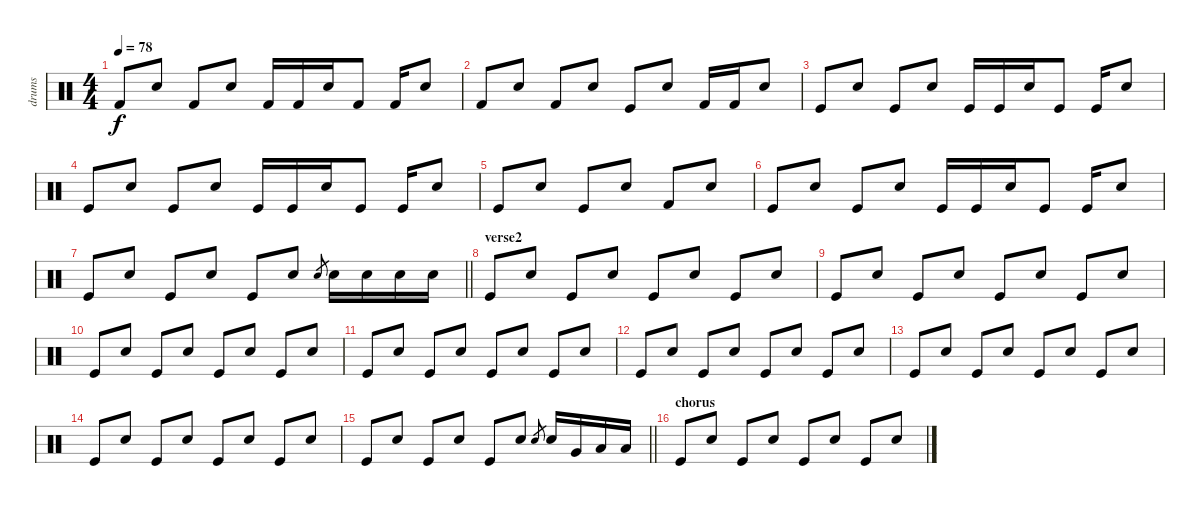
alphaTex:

\track ("drums" "drums") {instrument percussion}
\staff {score}
\articulation defaults
\ts (4 4)
\tempo 78
\clef neutral
\ks c "Kick (hit) 2".8{dy f} "Snare (hit) 2".8 "Kick (hit) 2".8 "Snare (hit) 2".8 "Kick (hit) 2".16 "Kick (hit) 2".16 "Snare (hit) 2".16 "Kick (hit) 2".8 "Kick (hit) 2".16 "Snare (hit) 2".8
|
"Kick (hit) 2".8 "Snare (hit) 2".8 "Kick (hit) 2".8 "Snare (hit) 2".8 "Kick (hit)".8 "Snare (hit) 2".8 "Kick (hit) 2".16 "Kick (hit) 2".16 "Snare (hit) 2".8 |
"Kick (hit)".8 "Snare (hit) 2".8 "Kick (hit)".8 "Snare (hit) 2".8 "Kick (hit)".16 "Kick (hit)".16 "Snare (hit) 2".16 "Kick (hit)".8 "Kick (hit)".16 "Snare (hit) 2".8 |
"Kick (hit)".8 "Snare (hit) 2".8 "Kick (hit)".8 "Snare (hit) 2".8 "Kick (hit)".16 "Kick (hit)".16 "Snare (hit) 2".16 "Kick (hit)".8 "Kick (hit)".16 "Snare (hit) 2".8 |
"Kick (hit)".8 "Snare (hit) 2".8 "Kick (hit)".8 "Snare (hit) 2".8 "Kick (hit) 2".8 "Snare (hit) 2".8 |
"Kick (hit)".8 "Snare (hit) 2".8 "Kick (hit)".8 "Snare (hit) 2".8 "Kick (hit)".16 "Kick (hit)".16 "Snare (hit) 2".16 "Kick (hit)".8 "Kick (hit)".16 "Snare (hit) 2".8 |
\barLineRight lightlight "Kick (hit)".8 "Snare (hit) 2".8 "Kick (hit)".8 "Snare (hit) 2".8 "Kick (hit)".8 "Snare (hit) 2".8 "Snare (hit) 2".8{gr} "Snare (hit) 2".16 "Snare (hit) 2".16 "Snare (hit) 2".16 "Snare (hit) 2".16
|
\section ("" "verse2")
"Kick (hit)".8 "Snare (hit) 2".8 "Kick (hit)".8 "Snare (hit) 2".8 "Kick (hit)".8 "Snare (hit) 2".8 "Kick (hit)".8 "Snare (hit) 2".8 |
"Kick (hit)".8 "Snare (hit) 2".8 "Kick (hit)".8 "Snare (hit) 2".8 "Kick (hit)".8 "Snare (hit) 2".8 "Kick (hit)".8 "Snare (hit) 2".8 |
"Kick (hit)".8 "Snare (hit) 2".8 "Kick (hit)".8 "Snare (hit) 2".8 "Kick (hit)".8 "Snare (hit) 2".8 "Kick (hit)".8 "Snare (hit) 2".8 |
"Kick (hit)".8 "Snare (hit) 2".8 "Kick (hit)".8 "Snare (hit) 2".8 "Kick (hit)".8 "Snare (hit) 2".8 "Kick (hit)".8 "Snare (hit) 2".8 |
"Kick (hit)".8 "Snare (hit) 2".8 "Kick (hit)".8 "Snare (hit) 2".8 "Kick (hit)".8 "Snare (hit) 2".8 "Kick (hit)".8 "Snare (hit) 2".8 |
"Kick (hit)".8 "Snare (hit) 2".8 "Kick (hit)".8 "Snare (hit) 2".8 "Kick (hit)".8 "Snare (hit) 2".8 "Kick (hit)".8 "Snare (hit) 2".8 |
"Kick (hit)".8 "Snare (hit) 2".8 "Kick (hit)".8 "Snare (hit) 2".8 "Kick (hit)".8 "Snare (hit) 2".8 "Kick (hit)".8 "Snare (hit) 2".8 |
\barLineRight lightlight "Kick (hit)".8 "Snare (hit) 2".8 "Kick (hit)".8 "Snare (hit) 2".8 "Kick (hit)".8 "Snare (hit) 2".8 "Snare (hit) 2".8{gr} "Snare (hit) 2".16 "Very Low Tom (hit)".16 "Low Tom (hit)".16 "Low Tom (hit)".16
|
\section ("" "chorus")
"Kick (hit)".8 "Snare (hit) 2".8 "Kick (hit)".8 "Snare (hit) 2".8 "Kick (hit)".8 "Snare (hit) 2".8 "Kick (hit)".8 "Snare (hit) 2".8
